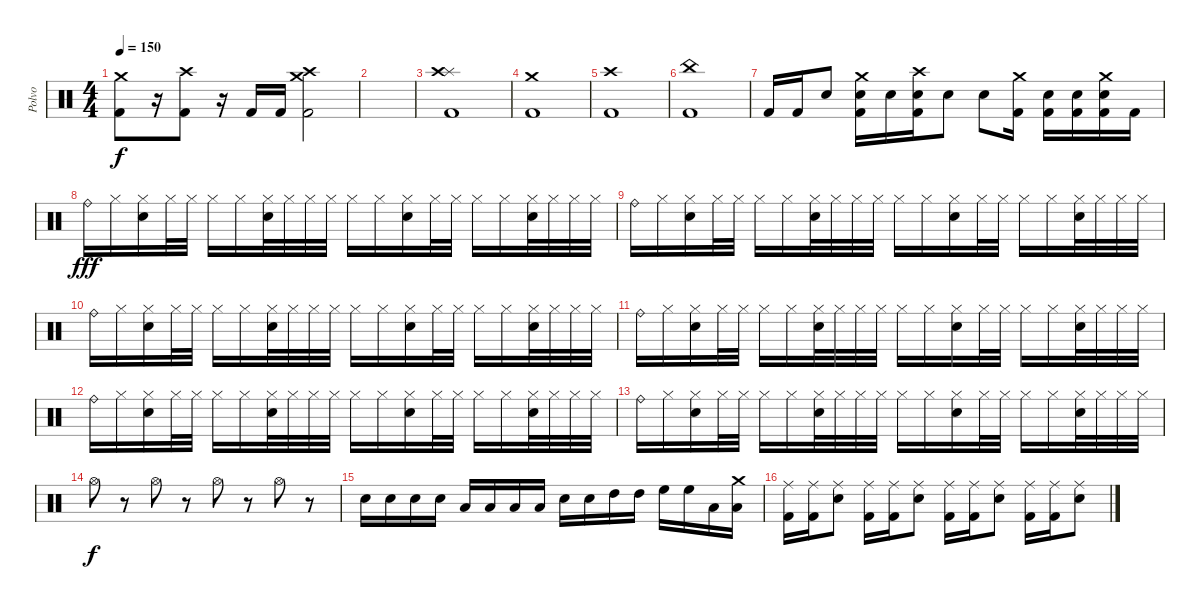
\track ("Polvo" "Polvo") {instrument percussion}
\staff {score}
\articulation defaults
\ts (4 4)
\tempo 150
\clef neutral
\ks c
("Crash medium (hit)" "Kick (hit) 2").8{dy f} r.16 ("Crash high (hit)" "Kick (hit) 2").8 r.16 "Kick (hit) 2".16 "Kick (hit) 2".16 ("Crash high (hit)" "Crash medium (hit)" "Kick (hit) 2").2 |
|
("Splash (hit)" "Crash high (hit)" "Kick (hit) 2").1 |
("Crash medium (hit)" "Kick (hit) 2").1 |
("Crash high (hit)" "Kick (hit) 2").1 |
("China (hit)" "Kick (hit) 2").1 |
"Kick (hit) 2".16 "Kick (hit) 2".16 "Electric Snare (hit)".8 ("Crash medium (hit)" "Electric Snare (hit)" "Kick (hit) 2").16 "Electric Snare (hit)".16 ("Crash high (hit)" "Electric Snare (hit)" "Kick (hit) 2").16 "Electric Snare (hit)".8 "Electric Snare (hit)".8 ("Crash medium (hit)" "Kick (hit) 2").16 ("Electric Snare (hit)" "Kick (hit) 2").16 ("Electric Snare (hit)" "Kick (hit) 2").16 ("Crash medium (hit)" "Electric Snare (hit)" "Kick (hit) 2").16 "Kick (hit) 2".16 |
"Ride (bell)".16{dy fff} "Hi-Hat (closed)".16 ("Electric Snare (hit)" "Hi-Hat (closed)").16 "Hi-Hat (closed)".32 "Hi-Hat (closed)".32 "Hi-Hat (closed)".16 "Hi-Hat (closed)".16 ("Electric Snare (hit)" "Hi-Hat (closed)").32 "Hi-Hat (closed)".32 "Hi-Hat (closed)".32 "Hi-Hat (closed)".32 "Hi-Hat (closed)".16 "Hi-Hat (closed)".16 ("Electric Snare (hit)" "Hi-Hat (closed)").16 "Hi-Hat (closed)".32 "Hi-Hat (closed)".32 "Hi-Hat (closed)".16 "Hi-Hat (closed)".16 ("Electric Snare (hit)" "Hi-Hat (closed)").32 "Hi-Hat (closed)".32 "Hi-Hat (closed)".32 "Hi-Hat (closed)".32 |
"Ride (bell)".16 "Hi-Hat (closed)".16 ("Electric Snare (hit)" "Hi-Hat (closed)").16 "Hi-Hat (closed)".32 "Hi-Hat (closed)".32 "Hi-Hat (closed)".16 "Hi-Hat (closed)".16 ("Electric Snare (hit)" "Hi-Hat (closed)").32 "Hi-Hat (closed)".32 "Hi-Hat (closed)".32 "Hi-Hat (closed)".32 "Hi-Hat (closed)".16 "Hi-Hat (closed)".16 ("Electric Snare (hit)" "Hi-Hat (closed)").16 "Hi-Hat (closed)".32 "Hi-Hat (closed)".32 "Hi-Hat (closed)".16 "Hi-Hat (closed)".16 ("Electric Snare (hit)" "Hi-Hat (closed)").32 "Hi-Hat (closed)".32 "Hi-Hat (closed)".32 "Hi-Hat (closed)".32 |
"Ride (bell)".16 "Hi-Hat (closed)".16 ("Electric Snare (hit)" "Hi-Hat (closed)").16 "Hi-Hat (closed)".32 "Hi-Hat (closed)".32 "Hi-Hat (closed)".16 "Hi-Hat (closed)".16 ("Electric Snare (hit)" "Hi-Hat (closed)").32 "Hi-Hat (closed)".32 "Hi-Hat (closed)".32 "Hi-Hat (closed)".32 "Hi-Hat (closed)".16 "Hi-Hat (closed)".16 ("Electric Snare (hit)" "Hi-Hat (closed)").16 "Hi-Hat (closed)".32 "Hi-Hat (closed)".32 "Hi-Hat (closed)".16 "Hi-Hat (closed)".16 ("Electric Snare (hit)" "Hi-Hat (closed)").32 "Hi-Hat (closed)".32 "Hi-Hat (closed)".32 "Hi-Hat (closed)".32 |
"Ride (bell)".16 "Hi-Hat (closed)".16 ("Electric Snare (hit)" "Hi-Hat (closed)").16 "Hi-Hat (closed)".32 "Hi-Hat (closed)".32 "Hi-Hat (closed)".16 "Hi-Hat (closed)".16 ("Electric Snare (hit)" "Hi-Hat (closed)").32 "Hi-Hat (closed)".32 "Hi-Hat (closed)".32 "Hi-Hat (closed)".32 "Hi-Hat (closed)".16 "Hi-Hat (closed)".16 ("Electric Snare (hit)" "Hi-Hat (closed)").16 "Hi-Hat (closed)".32 "Hi-Hat (closed)".32 "Hi-Hat (closed)".16 "Hi-Hat (closed)".16 ("Electric Snare (hit)" "Hi-Hat (closed)").32 "Hi-Hat (closed)".32 "Hi-Hat (closed)".32 "Hi-Hat (closed)".32 |
"Ride (bell)".16 "Hi-Hat (closed)".16 ("Electric Snare (hit)" "Hi-Hat (closed)").16 "Hi-Hat (closed)".32 "Hi-Hat (closed)".32 "Hi-Hat (closed)".16 "Hi-Hat (closed)".16 ("Electric Snare (hit)" "Hi-Hat (closed)").32 "Hi-Hat (closed)".32 "Hi-Hat (closed)".32 "Hi-Hat (closed)".32 "Hi-Hat (closed)".16 "Hi-Hat (closed)".16 ("Electric Snare (hit)" "Hi-Hat (closed)").16 "Hi-Hat (closed)".32 "Hi-Hat (closed)".32 "Hi-Hat (closed)".16 "Hi-Hat (closed)".16 ("Electric Snare (hit)" "Hi-Hat (closed)").32 "Hi-Hat (closed)".32 "Hi-Hat (closed)".32 "Hi-Hat (closed)".32 |
"Ride (bell)".16 "Hi-Hat (closed)".16 ("Electric Snare (hit)" "Hi-Hat (closed)").16 "Hi-Hat (closed)".32 "Hi-Hat (closed)".32 "Hi-Hat (closed)".16 "Hi-Hat (closed)".16 ("Electric Snare (hit)" "Hi-Hat (closed)").32 "Hi-Hat (closed)".32 "Hi-Hat (closed)".32 "Hi-Hat (closed)".32 "Hi-Hat (closed)".16 "Hi-Hat (closed)".16 ("Electric Snare (hit)" "Hi-Hat (closed)").16 "Hi-Hat (closed)".32 "Hi-Hat (closed)".32 "Hi-Hat (closed)".16 "Hi-Hat (closed)".16 ("Electric Snare (hit)" "Hi-Hat (closed)").32 "Hi-Hat (closed)".32 "Hi-Hat (closed)".32 "Hi-Hat (closed)".32 |
"Hi-Hat (open)".8{dy f} r.8 "Hi-Hat (open)".8 r.8 "Hi-Hat (open)".8 r.8 "Hi-Hat (open)".8 r.8 |
"Electric Snare (hit)".16 "Electric Snare (hit)".16 "Electric Snare (hit)".16 "Electric Snare (hit)".16 "Low Tom (hit)".16 "Low Tom (hit)".16 "Low Tom (hit)".16 "Low Tom (hit)".16 "Electric Snare (hit)".16 "Electric Snare (hit)".16 "High Tom (hit)".16 "High Tom (hit)".16 "High Floor Tom (hit)".16 "High Floor Tom (hit)".16 "Low Floor Tom (hit)".16 ("Crash medium (hit)" "Low Floor Tom (hit)").16 |
("Ride (middle)" "Kick (hit) 2").16 ("Ride (middle)" "Kick (hit) 2").16 ("Ride (middle)" "Electric Snare (hit)").8 ("Ride (middle)" "Kick (hit) 2").16 ("Ride (middle)" "Kick (hit) 2").16 ("Ride (middle)" "Electric Snare (hit)").8 ("Ride (middle)" "Kick (hit) 2").16 ("Ride (middle)" "Kick (hit) 2").16 ("Ride (middle)" "Electric Snare (hit)").8 ("Ride (middle)" "Kick (hit) 2").16 ("Ride (middle)" "Kick (hit) 2").16 ("Ride (middle)" "Electric Snare (hit)").8
